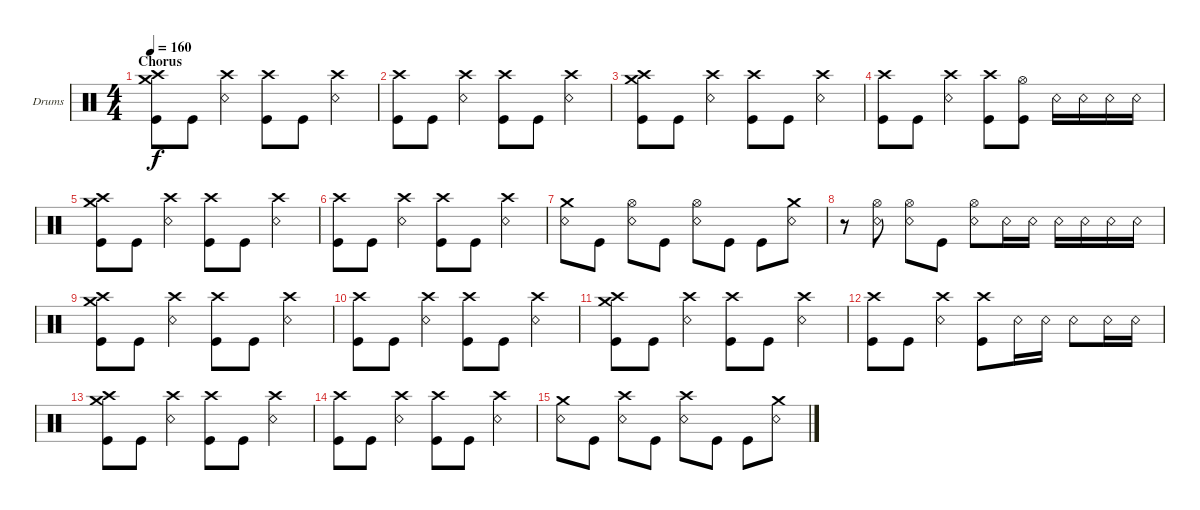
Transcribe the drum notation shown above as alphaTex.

\bracketExtendMode groupsimilarinstruments
\firstSystemTrackNameOrientation horizontal
\otherSystemsTrackNameOrientation horizontal
\track ("Drumkit" "Drums") {instrument percussion}
\staff {score}
\articulation defaults
\ts (4 4)
\section ("" "Chorus")
\tempo 160
\clef neutral
\scale
0.333333
\ks c
("Crash medium (hit)" "Crash high (hit)" "Kick (hit)").8{dy f} "Kick (hit)".8 ("Crash high (hit)" "Snare (rim shot)").4 ("Crash high (hit)" "Kick (hit)").8 "Kick (hit)".8 ("Crash high (hit)" "Snare (rim shot)").4 |
\scale
0.333333 ("Crash high (hit)" "Kick (hit)").8 "Kick (hit)".8 ("Crash high (hit)" "Snare (rim shot)").4 ("Crash high (hit)" "Kick (hit)").8 "Kick (hit)".8 ("Crash high (hit)" "Snare (rim shot)").4 |
\scale
0.333333 ("Crash medium (hit)" "Crash high (hit)" "Kick (hit)").8 "Kick (hit)".8 ("Crash high (hit)" "Snare (rim shot)").4 ("Crash high (hit)" "Kick (hit)").8 "Kick (hit)".8 ("Crash high (hit)" "Snare (rim shot)").4 |
\scale
0.333333 ("Crash high (hit)" "Kick (hit)").8 "Kick (hit)".8 ("Crash high (hit)" "Snare (rim shot)").4 ("Crash high (hit)" "Kick (hit)").8 ("Hi-Hat (open)" "Kick (hit)").8 "Snare (rim shot)".16 "Snare (rim shot)".16 "Snare (rim shot)".16 "Snare (rim shot)".16 |
\scale
0.333333 ("Crash medium (hit)" "Crash high (hit)" "Kick (hit)").8 "Kick (hit)".8 ("Crash high (hit)" "Snare (rim shot)").4 ("Crash high (hit)" "Kick (hit)").8 "Kick (hit)".8 ("Crash high (hit)" "Snare (rim shot)").4 |
\scale
0.333333 ("Crash high (hit)" "Kick (hit)").8 "Kick (hit)".8 ("Crash high (hit)" "Snare (rim shot)").4 ("Crash high (hit)" "Kick (hit)").8 "Kick (hit)".8 ("Crash high (hit)" "Snare (rim shot)").4 |
\scale
0.333333 ("Crash medium (hit)" "Snare (rim shot)").8 "Kick (hit)".8 ("Hi-Hat (open)" "Snare (rim shot)").8 "Kick (hit)".8 ("Hi-Hat (open)" "Snare (rim shot)").8 "Kick (hit)".8 "Kick (hit)".8 ("Crash medium (hit)" "Snare (rim shot)").8 |
\scale
0.333333 r.8 ("Hi-Hat (open)" "Snare (rim shot)").8 ("Hi-Hat (open)" "Snare (rim shot)").8 "Kick (hit)".8 ("Hi-Hat (open)" "Snare (rim shot)").8 "Snare (rim shot)".16 "Snare (rim shot)".16 "Snare (rim shot)".16 "Snare (rim shot)".16 "Snare (rim shot)".16 "Snare (rim shot)".16 |
\scale
0.333333 ("Crash medium (hit)" "Crash high (hit)" "Kick (hit)").8 "Kick (hit)".8 ("Crash high (hit)" "Snare (rim shot)").4 ("Crash high (hit)" "Kick (hit)").8 "Kick (hit)".8 ("Crash high (hit)" "Snare (rim shot)").4 |
\scale
0.333333 ("Crash high (hit)" "Kick (hit)").8 "Kick (hit)".8 ("Crash high (hit)" "Snare (rim shot)").4 ("Crash high (hit)" "Kick (hit)").8 "Kick (hit)".8 ("Crash high (hit)" "Snare (rim shot)").4 |
\scale
0.333333 ("Crash medium (hit)" "Crash high (hit)" "Kick (hit)").8 "Kick (hit)".8 ("Crash high (hit)" "Snare (rim shot)").4 ("Crash high (hit)" "Kick (hit)").8 "Kick (hit)".8 ("Crash high (hit)" "Snare (rim shot)").4 |
\scale
0.333333 ("Crash high (hit)" "Kick (hit)").8 "Kick (hit)".8 ("Crash high (hit)" "Snare (rim shot)").4 ("Crash high (hit)" "Kick (hit)").8 "Snare (rim shot)".16 "Snare (rim shot)".16 "Snare (rim shot)".8 "Snare (rim shot)".16 "Snare (rim shot)".16 |
\scale
0.333333 ("Crash high (hit)" "Crash medium (hit)" "Kick (hit)").8 "Kick (hit)".8 ("Crash high (hit)" "Snare (rim shot)").4 ("Crash high (hit)" "Kick (hit)").8 "Kick (hit)".8 ("Crash high (hit)" "Snare (rim shot)").4 |
\scale
0.333333 ("Crash high (hit)" "Kick (hit)").8 "Kick (hit)".8 ("Crash high (hit)" "Snare (rim shot)").4 ("Crash high (hit)" "Kick (hit)").8 "Kick (hit)".8 ("Crash high (hit)" "Snare (rim shot)").4 |
\scale
0.333333 ("Crash medium (hit)" "Snare (rim shot)").8 "Kick (hit)".8 ("Crash high (hit)" "Snare (rim shot)").8 "Kick (hit)".8 ("Crash high (hit)" "Snare (rim shot)").8 "Kick (hit)".8 "Kick (hit)".8 ("Crash medium (hit)" "Snare (rim shot)").8 |
\scale
0.333333
